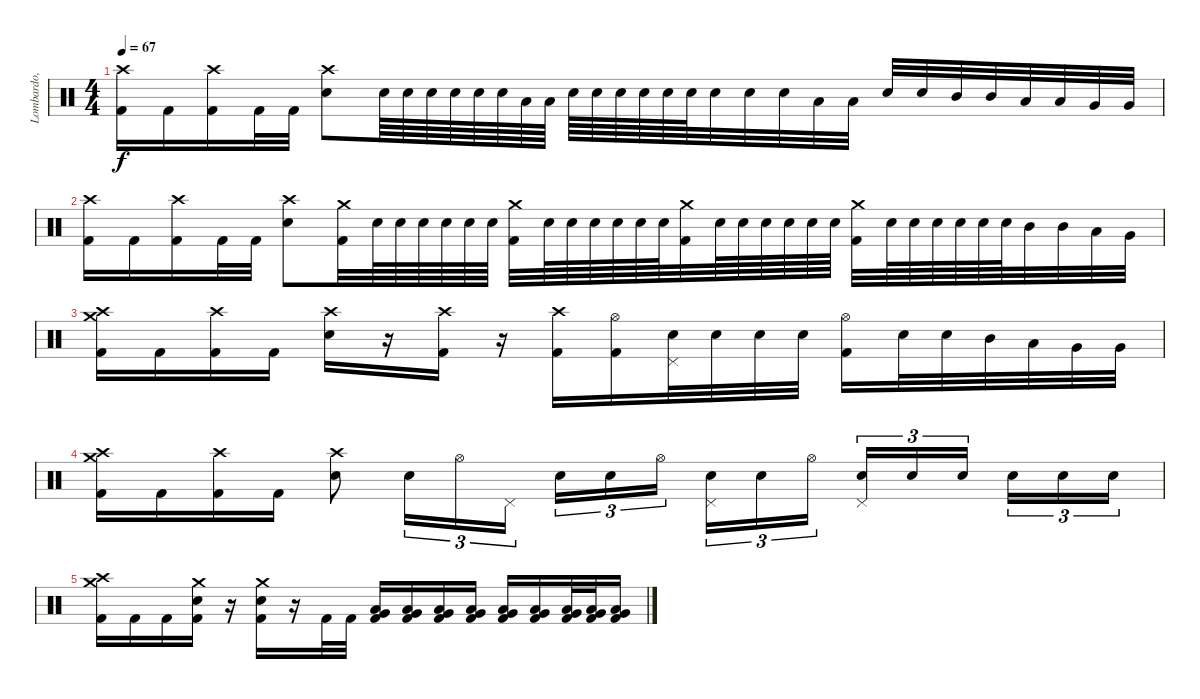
\track ("Lombardo, Dave" "Lombardo, ") {instrument percussion}
\staff {score}
\articulation defaults
\ts (4 4)
\tempo 67
\clef neutral
\ks c
("Kick (hit) 2" "Crash high (hit)").16{dy f} "Kick (hit) 2".16 ("Kick (hit) 2" "Crash high (hit)").16 "Kick (hit) 2".32 "Kick (hit) 2".32 ("Electric Snare (hit)" "Crash high (hit)").8 "Electric Snare (hit)".64 "Electric Snare (hit)".64 "Electric Snare (hit)".64 "Electric Snare (hit)".64 "Electric Snare (hit)".64 "Electric Snare (hit)".64 "Low Tom (hit)".64 "Low Tom (hit)".64 "Electric Snare (hit)".64 "Electric Snare (hit)".64 "Electric Snare (hit)".64 "Electric Snare (hit)".64 "Electric Snare (hit)".64 "Electric Snare (hit)".64 "Electric Snare (hit)".32 "Electric Snare (hit)".32 "Electric Snare (hit)".32 "Low Tom (hit)".32 "Low Tom (hit)".32 "Electric Snare (hit)".32 "Electric Snare (hit)".32 "Mid Tom (hit)".32 "Mid Tom (hit)".32 "Low Tom (hit)".32 "Low Tom (hit)".32 "Very Low Tom (hit)".32 "Very Low Tom (hit)".32 |
("Kick (hit) 2" "Crash high (hit)").16 "Kick (hit) 2".16 ("Kick (hit) 2" "Crash high (hit)").16 "Kick (hit) 2".32 "Kick (hit) 2".32 ("Electric Snare (hit)" "Crash high (hit)").8 ("Kick (hit) 2" "Crash medium (hit)").32 "Electric Snare (hit)".64 "Electric Snare (hit)".64 "Electric Snare (hit)".64 "Electric Snare (hit)".64 "Electric Snare (hit)".64 "Electric Snare (hit)".64 ("Kick (hit) 2" "Crash medium (hit)").32 "Electric Snare (hit)".64 "Electric Snare (hit)".64 "Electric Snare (hit)".64 "Electric Snare (hit)".64 "Electric Snare (hit)".64 "Electric Snare (hit)".64 ("Kick (hit) 2" "Crash medium (hit)").32 "Electric Snare (hit)".64 "Electric Snare (hit)".64 "Electric Snare (hit)".64 "Electric Snare (hit)".64 "Electric Snare (hit)".64 "Electric Snare (hit)".64 ("Kick (hit) 2" "Crash medium (hit)").32 "Electric Snare (hit)".64 "Electric Snare (hit)".64 "Electric Snare (hit)".64 "Electric Snare (hit)".64 "Electric Snare (hit)".64 "Electric Snare (hit)".64 "Mid Tom (hit)".32 "Mid Tom (hit)".32 "Low Tom (hit)".32 "Very Low Tom (hit)".32 |
("Kick (hit) 2" "Crash medium (hit)" "Crash high (hit)").16 "Kick (hit) 2".16 ("Kick (hit) 2" "Crash high (hit)").16 "Kick (hit) 2".16 ("Electric Snare (hit)" "Crash high (hit)").16 r.16 ("Kick (hit) 2" "Crash high (hit)").16 r.16 ("Kick (hit) 2" "Crash high (hit)").16 ("Kick (hit) 2" "Hi-Hat (open)").16 ("Electric Snare (hit)" "Pedal Hi-Hat (hit)").32 "Electric Snare (hit)".32 "Electric Snare (hit)".32 "Electric Snare (hit)".32 ("Kick (hit) 2" "Hi-Hat (open)").16 "Electric Snare (hit)".32 "Electric Snare (hit)".32 "Mid Tom (hit)".32 "Low Tom (hit)".32 "Very Low Tom (hit)".32 "Very Low Tom (hit)".32 |
("Kick (hit) 2" "Crash medium (hit)" "Crash high (hit)").16 "Kick (hit) 2".16 ("Kick (hit) 2" "Crash high (hit)").16 "Kick (hit) 2".16 ("Electric Snare (hit)" "Crash high (hit)").8 "Electric Snare (hit)".16{tu (3 2)} "Hi-Hat (open)".16{tu (3 2)} "Pedal Hi-Hat (hit)".16{tu (3 2)} "Electric Snare (hit)".16{tu (3 2)} "Electric Snare (hit)".16{tu (3 2)} "Hi-Hat (open)".16{tu (3 2)} ("Pedal Hi-Hat (hit)" "Electric Snare (hit)").16{tu (3 2)} "Electric Snare (hit)".16{tu (3 2)} "Hi-Hat (open)".16{tu (3 2)} ("Pedal Hi-Hat (hit)" "Electric Snare (hit)").16{tu (3 2)} "Electric Snare (hit)".16{tu (3 2)} "Electric Snare (hit)".16{tu (3 2)} "Electric Snare (hit)".16{tu (3 2)} "Electric Snare (hit)".16{tu (3 2)} "Electric Snare (hit)".16{tu (3 2)} |
("Kick (hit) 2" "Crash medium (hit)" "Crash high (hit)").16 "Kick (hit) 2".16 "Kick (hit) 2".16 ("Kick (hit) 2" "Electric Snare (hit)" "Crash medium (hit)").16 r.16 ("Kick (hit) 2" "Electric Snare (hit)" "Crash medium (hit)").16 r.16 "Kick (hit) 2".32 "Kick (hit) 2".32 ("Kick (hit) 2" "Very Low Tom (hit)" "Low Floor Tom (hit)").16 ("Kick (hit) 2" "Low Floor Tom (hit)" "Very Low Tom (hit)").16 ("Kick (hit) 2" "Low Floor Tom (hit)" "Very Low Tom (hit)").16 ("Kick (hit) 2" "Low Floor Tom (hit)" "Very Low Tom (hit)").16 ("Kick (hit) 2" "Low Floor Tom (hit)" "Very Low Tom (hit)").16 ("Kick (hit) 2" "Low Floor Tom (hit)" "Very Low Tom (hit)").16 ("Kick (hit) 2" "Low Floor Tom (hit)" "Very Low Tom (hit)").32 ("Kick (hit) 2" "Very Low Tom (hit)" "Low Floor Tom (hit)").32 ("Kick (hit) 2" "Low Floor Tom (hit)" "Very Low Tom (hit)").16
